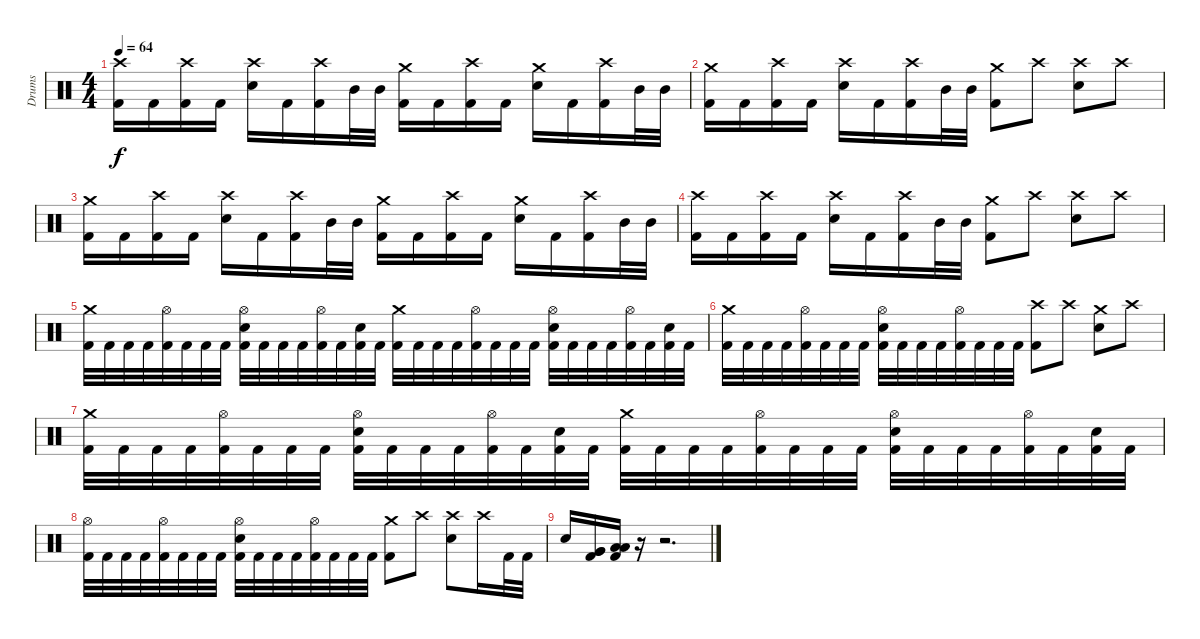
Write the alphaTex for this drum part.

\track ("Drums" "Drums") {instrument percussion}
\staff {score}
\articulation defaults
\ts (4 4)
\tempo 64
\clef neutral
\ks c
("Crash high (hit)" "Kick (hit) 2").16{dy f} "Kick (hit) 2".16 ("Crash high (hit)" "Kick (hit) 2").16 "Kick (hit) 2".16 ("Crash high (hit)" "Electric Snare (hit)").16 "Kick (hit) 2".16 ("Crash high (hit)" "Kick (hit) 2").16 "Mid Tom (hit)".32 "Mid Tom (hit)".32 ("Crash medium (hit)" "Kick (hit) 2").16 "Kick (hit) 2".16 ("Crash high (hit)" "Kick (hit) 2").16 "Kick (hit) 2".16 ("Crash medium (hit)" "Electric Snare (hit)").16 "Kick (hit) 2".16 ("Crash high (hit)" "Kick (hit) 2").16 "Mid Tom (hit)".32 "Mid Tom (hit)".32 |
("Crash medium (hit)" "Kick (hit) 2").16 "Kick (hit) 2".16 ("Crash high (hit)" "Kick (hit) 2").16 "Kick (hit) 2".16 ("Crash high (hit)" "Electric Snare (hit)").16 "Kick (hit) 2".16 ("Crash high (hit)" "Kick (hit) 2").16 "Mid Tom (hit)".32 "Mid Tom (hit)".32 ("Crash medium (hit)" "Kick (hit) 2").8 "Crash high (hit)".8 ("Crash high (hit)" "Electric Snare (hit)").8 "Crash high (hit)".8 |
("Crash medium (hit)" "Kick (hit) 2").16 "Kick (hit) 2".16 ("Crash high (hit)" "Kick (hit) 2").16 "Kick (hit) 2".16 ("Crash high (hit)" "Electric Snare (hit)").16 "Kick (hit) 2".16 ("Crash high (hit)" "Kick (hit) 2").16 "Mid Tom (hit)".32 "Mid Tom (hit)".32 ("Crash medium (hit)" "Kick (hit) 2").16 "Kick (hit) 2".16 ("Crash high (hit)" "Kick (hit) 2").16 "Kick (hit) 2".16 ("Crash medium (hit)" "Electric Snare (hit)").16 "Kick (hit) 2".16 ("Crash high (hit)" "Kick (hit) 2").16 "Mid Tom (hit)".32 "Mid Tom (hit)".32 |
("Crash high (hit)" "Kick (hit) 2").16 "Kick (hit) 2".16 ("Crash high (hit)" "Kick (hit) 2").16 "Kick (hit) 2".16 ("Crash high (hit)" "Electric Snare (hit)").16 "Kick (hit) 2".16 ("Crash high (hit)" "Kick (hit) 2").16 "Mid Tom (hit)".32 "Mid Tom (hit)".32 ("Crash medium (hit)" "Kick (hit) 2").8 "Crash high (hit)".8 ("Crash high (hit)" "Electric Snare (hit)").8 "Crash high (hit)".8 |
("Crash medium (hit)" "Kick (hit) 2").32 "Kick (hit) 2".32 "Kick (hit) 2".32 "Kick (hit) 2".32 ("Hi-Hat (open)" "Kick (hit) 2").32 "Kick (hit) 2".32 "Kick (hit) 2".32 "Kick (hit) 2".32 ("Hi-Hat (open)" "Electric Snare (hit)" "Kick (hit) 2").32 "Kick (hit) 2".32 "Kick (hit) 2".32 "Kick (hit) 2".32 ("Hi-Hat (open)" "Kick (hit) 2").32 "Kick (hit) 2".32 ("Electric Snare (hit)" "Kick (hit) 2").32 "Kick (hit) 2".32 ("Crash medium (hit)" "Kick (hit) 2").32 "Kick (hit) 2".32 "Kick (hit) 2".32 "Kick (hit) 2".32 ("Hi-Hat (open)" "Kick (hit) 2").32 "Kick (hit) 2".32 "Kick (hit) 2".32 "Kick (hit) 2".32 ("Hi-Hat (open)" "Electric Snare (hit)" "Kick (hit) 2").32 "Kick (hit) 2".32 "Kick (hit) 2".32 "Kick (hit) 2".32 ("Hi-Hat (open)" "Kick (hit) 2").32 "Kick (hit) 2".32 ("Electric Snare (hit)" "Kick (hit) 2").32 "Kick (hit) 2".32 |
("Crash medium (hit)" "Kick (hit) 2").32 "Kick (hit) 2".32 "Kick (hit) 2".32 "Kick (hit) 2".32 ("Hi-Hat (open)" "Kick (hit) 2").32 "Kick (hit) 2".32 "Kick (hit) 2".32 "Kick (hit) 2".32 ("Hi-Hat (open)" "Electric Snare (hit)" "Kick (hit) 2").32 "Kick (hit) 2".32 "Kick (hit) 2".32 "Kick (hit) 2".32 ("Hi-Hat (open)" "Kick (hit) 2").32 "Kick (hit) 2".32 "Kick (hit) 2".32 "Kick (hit) 2".32 ("Crash high (hit)" "Kick (hit) 2").8 "Crash high (hit)".8 ("Crash medium (hit)" "Electric Snare (hit)").8 "Crash high (hit)".8 |
("Crash medium (hit)" "Kick (hit) 2").32 "Kick (hit) 2".32 "Kick (hit) 2".32 "Kick (hit) 2".32 ("Hi-Hat (open)" "Kick (hit) 2").32 "Kick (hit) 2".32 "Kick (hit) 2".32 "Kick (hit) 2".32 ("Hi-Hat (open)" "Electric Snare (hit)" "Kick (hit) 2").32 "Kick (hit) 2".32 "Kick (hit) 2".32 "Kick (hit) 2".32 ("Hi-Hat (open)" "Kick (hit) 2").32 "Kick (hit) 2".32 ("Electric Snare (hit)" "Kick (hit) 2").32 "Kick (hit) 2".32 ("Crash medium (hit)" "Kick (hit) 2").32 "Kick (hit) 2".32 "Kick (hit) 2".32 "Kick (hit) 2".32 ("Hi-Hat (open)" "Kick (hit) 2").32 "Kick (hit) 2".32 "Kick (hit) 2".32 "Kick (hit) 2".32 ("Hi-Hat (open)" "Electric Snare (hit)" "Kick (hit) 2").32 "Kick (hit) 2".32 "Kick (hit) 2".32 "Kick (hit) 2".32 ("Hi-Hat (open)" "Kick (hit) 2").32 "Kick (hit) 2".32 ("Electric Snare (hit)" "Kick (hit) 2").32 "Kick (hit) 2".32 |
("Hi-Hat (open)" "Kick (hit) 2").32 "Kick (hit) 2".32 "Kick (hit) 2".32 "Kick (hit) 2".32 ("Hi-Hat (open)" "Kick (hit) 2").32 "Kick (hit) 2".32 "Kick (hit) 2".32 "Kick (hit) 2".32 ("Hi-Hat (open)" "Electric Snare (hit)" "Kick (hit) 2").32 "Kick (hit) 2".32 "Kick (hit) 2".32 "Kick (hit) 2".32 ("Hi-Hat (open)" "Kick (hit) 2").32 "Kick (hit) 2".32 "Kick (hit) 2".32 "Kick (hit) 2".32 ("Crash medium (hit)" "Kick (hit) 2").8 "Crash high (hit)".8 ("Crash high (hit)" "Electric Snare (hit)").8 "Crash high (hit)".16 "Kick (hit) 2".32 "Kick (hit) 2".32 |
"Electric Snare (hit)".16 ("Very Low Tom (hit)" "Very Low Tom (hit)" "Kick (hit) 2").16 ("Low Floor Tom (hit)" "Low Floor Tom (hit)" "Kick (hit) 2").16 r.16 r.2{d}
